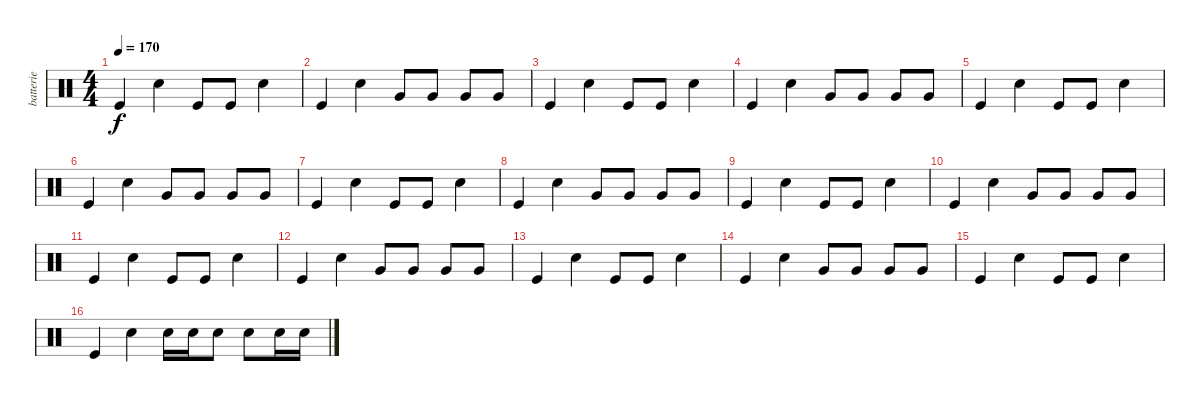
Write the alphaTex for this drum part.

\track ("batterie " "batterie ") {instrument percussion}
\staff {score}
\articulation defaults
\ts (4 4)
\tempo 170
\clef neutral
\ks c "Kick (hit)".4{dy f} "Snare (hit) 2".4 "Kick (hit)".8 "Kick (hit)".8 "Snare (hit) 2".4
|
"Kick (hit)".4 "Snare (hit) 2".4 "Very Low Tom (hit)".8 "Very Low Tom (hit)".8 "Very Low Tom (hit)".8 "Very Low Tom (hit)".8 |
"Kick (hit)".4 "Snare (hit) 2".4 "Kick (hit)".8 "Kick (hit)".8 "Snare (hit) 2".4 |
"Kick (hit)".4 "Snare (hit) 2".4 "Very Low Tom (hit)".8 "Very Low Tom (hit)".8 "Very Low Tom (hit)".8 "Very Low Tom (hit)".8 |
"Kick (hit)".4 "Snare (hit) 2".4 "Kick (hit)".8 "Kick (hit)".8 "Snare (hit) 2".4 |
"Kick (hit)".4 "Snare (hit) 2".4 "Very Low Tom (hit)".8 "Very Low Tom (hit)".8 "Very Low Tom (hit)".8 "Very Low Tom (hit)".8 |
"Kick (hit)".4 "Snare (hit) 2".4 "Kick (hit)".8 "Kick (hit)".8 "Snare (hit) 2".4 |
"Kick (hit)".4 "Snare (hit) 2".4 "Very Low Tom (hit)".8 "Very Low Tom (hit)".8 "Very Low Tom (hit)".8 "Very Low Tom (hit)".8 |
"Kick (hit)".4 "Snare (hit) 2".4 "Kick (hit)".8 "Kick (hit)".8 "Snare (hit) 2".4 |
"Kick (hit)".4 "Snare (hit) 2".4 "Very Low Tom (hit)".8 "Very Low Tom (hit)".8 "Very Low Tom (hit)".8 "Very Low Tom (hit)".8 |
"Kick (hit)".4 "Snare (hit) 2".4 "Kick (hit)".8 "Kick (hit)".8 "Snare (hit) 2".4 |
"Kick (hit)".4 "Snare (hit) 2".4 "Very Low Tom (hit)".8 "Very Low Tom (hit)".8 "Very Low Tom (hit)".8 "Very Low Tom (hit)".8 |
"Kick (hit)".4 "Snare (hit) 2".4 "Kick (hit)".8 "Kick (hit)".8 "Snare (hit) 2".4 |
"Kick (hit)".4 "Snare (hit) 2".4 "Very Low Tom (hit)".8 "Very Low Tom (hit)".8 "Very Low Tom (hit)".8 "Very Low Tom (hit)".8 |
"Kick (hit)".4 "Snare (hit) 2".4 "Kick (hit)".8 "Kick (hit)".8 "Snare (hit) 2".4 |
"Kick (hit)".4 "Snare (hit) 2".4 "Snare (hit) 2".16 "Snare (hit) 2".16 "Snare (hit) 2".8 "Snare (hit) 2".8 "Snare (hit) 2".16 "Snare (hit) 2".16
